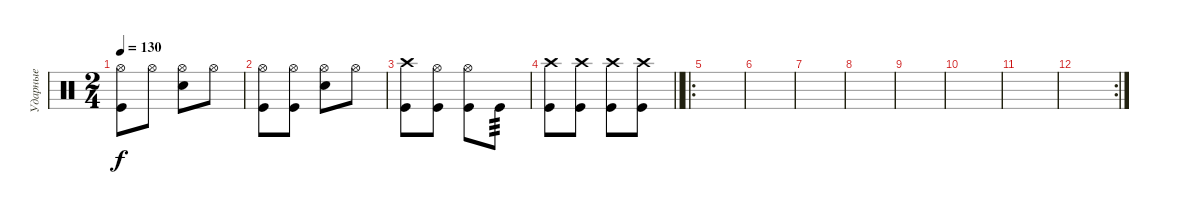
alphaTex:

\track ("Ударные" "Ударные") {instrument percussion}
\staff {score}
\articulation defaults
\ts (2 4)
\tempo 130
\clef neutral
\ks c
("Hi-Hat (open)" "Kick (hit)").8{dy f} "Hi-Hat (open)".8 ("Hi-Hat (open)" "Snare (hit) 2").8 "Hi-Hat (open)".8 |
("Hi-Hat (open)" "Kick (hit)").8 ("Hi-Hat (open)" "Kick (hit)").8 ("Hi-Hat (open)" "Snare (hit) 2").8 "Hi-Hat (open)".8 |
("Crash high (hit)" "Kick (hit)").8 ("Hi-Hat (open)" "Kick (hit)").8 ("Hi-Hat (open)" "Kick (hit)").8 "Kick (hit)".8{tp 3} |
\barLineRight lightlight
("Crash high (hit)" "Kick (hit)").8 ("Crash high (hit)" "Kick (hit)").8 ("Crash high (hit)" "Kick (hit)").8 ("Crash high (hit)" "Kick (hit)").8 |
\ro
|
|
|
|
|
|
|
\rc 2
